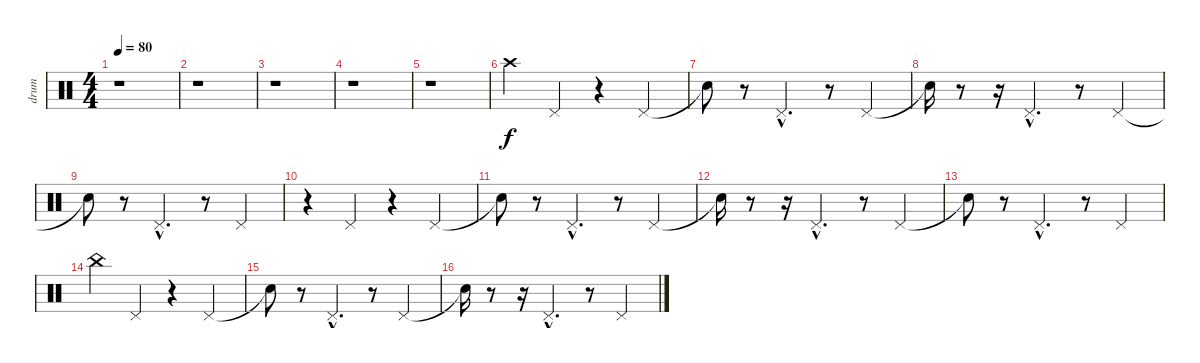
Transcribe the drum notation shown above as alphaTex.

\track ("drum" "drum") {instrument percussion}
\staff {score}
\articulation defaults
\ts (4 4)
\tempo 80
\clef neutral
\ks c
r.1{dy f} |
r.1 |
r.1 |
r.1 |
r.1 |
"Crash high (hit)".4 "Pedal Hi-Hat (hit)".4 r.4 "Pedal Hi-Hat (hit)".4 |
"Snare (hit)"{t}.8 r.8 "Pedal Hi-Hat (hit)"{hac}.4{d} r.8 "Pedal Hi-Hat (hit)".4 |
"Snare (hit)"{t}.16 r.8 r.16 "Pedal Hi-Hat (hit)"{hac}.4{d} r.8 "Pedal Hi-Hat (hit)".4 |
"Snare (hit)"{t}.8 r.8 "Pedal Hi-Hat (hit)"{hac}.4{d} r.8 "Pedal Hi-Hat (hit)".4 |
r.4 "Pedal Hi-Hat (hit)".4 r.4 "Pedal Hi-Hat (hit)".4 |
"Snare (hit)"{t}.8 r.8 "Pedal Hi-Hat (hit)"{hac}.4{d} r.8 "Pedal Hi-Hat (hit)".4 |
"Snare (hit)"{t}.16 r.8 r.16 "Pedal Hi-Hat (hit)"{hac}.4{d} r.8 "Pedal Hi-Hat (hit)".4 |
"Snare (hit)"{t}.8 r.8 "Pedal Hi-Hat (hit)"{hac}.4{d} r.8 "Pedal Hi-Hat (hit)".4 |
"China (hit)".4 "Pedal Hi-Hat (hit)".4 r.4 "Pedal Hi-Hat (hit)".4 |
"Snare (hit)"{t}.8 r.8 "Pedal Hi-Hat (hit)"{hac}.4{d} r.8 "Pedal Hi-Hat (hit)".4 |
"Snare (hit)"{t}.16 r.8 r.16 "Pedal Hi-Hat (hit)"{hac}.4{d} r.8 "Pedal Hi-Hat (hit)".4
